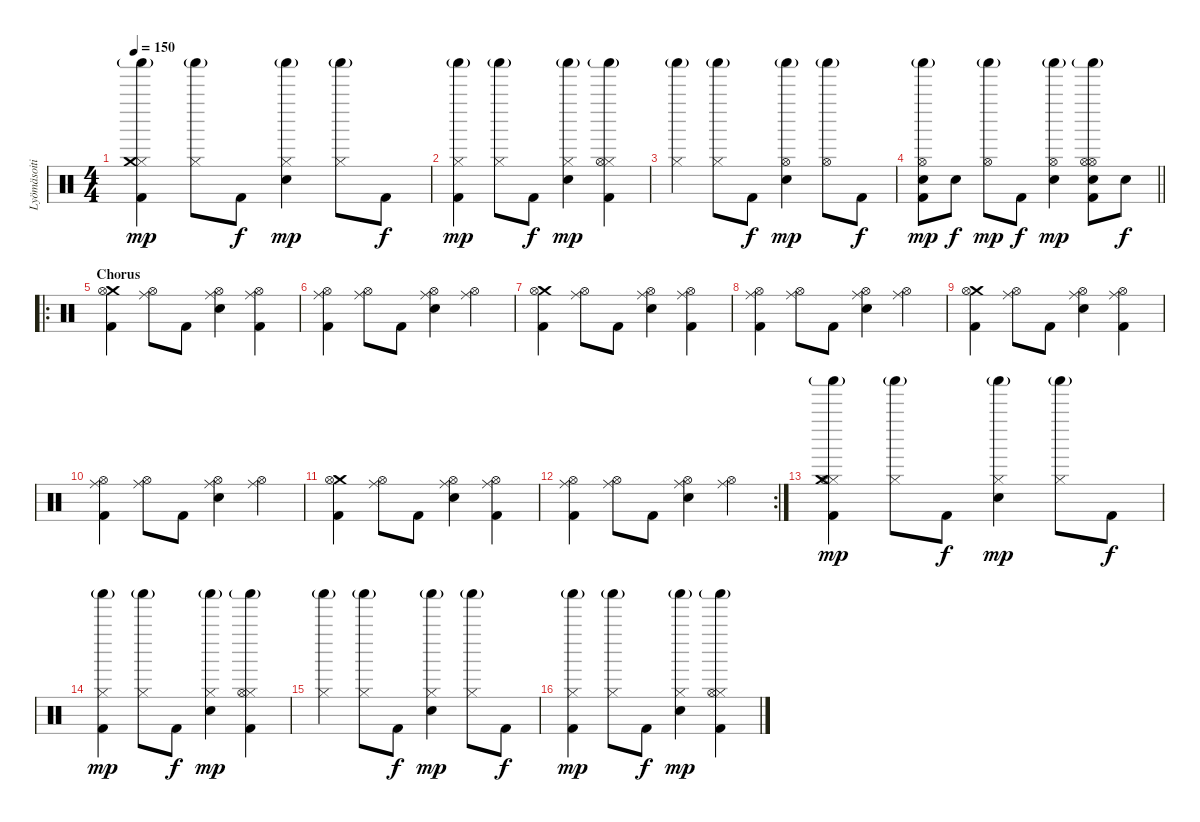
\track ("Lyömäsoitin" "Lyömäsoiti") {instrument percussion}
\staff
\articulation defaults
\ts (4 4)
\tempo 150
\clef neutral
\ks c
("Hi-Hat (closed)" "Crash medium (hit)" "Shaker (hit)"{g} "Kick (hit) 2").4{dy mp} ("Hi-Hat (closed)" "Shaker (hit)"{g}).8 "Kick (hit) 2".8{dy f} ("Hi-Hat (closed)" "Snare (hit) 2" "Shaker (hit)"{g}).4{dy mp} ("Hi-Hat (closed)" "Shaker (hit)"{g}).8 "Kick (hit) 2".8{dy f} |
("Hi-Hat (closed)" "Shaker (hit)"{g} "Kick (hit) 2").4{dy mp} ("Hi-Hat (closed)" "Shaker (hit)"{g}).8 "Kick (hit) 2".8{dy f} ("Hi-Hat (closed)" "Snare (hit) 2" "Shaker (hit)"{g}).4{dy mp} ("Hi-Hat (closed)" "Hi-Hat (open)" "Shaker (hit)"{g} "Kick (hit) 2").4 |
("Hi-Hat (closed)" "Shaker (hit)"{g}).4 ("Hi-Hat (closed)" "Shaker (hit)"{g}).8 "Kick (hit) 2".8{dy f} ("Hi-Hat (open)" "Snare (hit) 2" "Shaker (hit)"{g}).4{dy mp} ("Hi-Hat (open)" "Shaker (hit)"{g}).8 "Kick (hit) 2".8{dy f} |
\barLineRight lightlight
("Hi-Hat (open)" "Snare (hit) 2" "Shaker (hit)"{g} "Kick (hit) 2").8{dy mp} "Snare (hit) 2".8{dy f} ("Hi-Hat (open)" "Shaker (hit)"{g}).8{dy mp} "Kick (hit) 2".8{dy f} ("Hi-Hat (open)" "Snare (hit) 2" "Shaker (hit)"{g}).4{dy mp} ("Hi-Hat (open)" "Hi-Hat (open)" "Snare (hit) 2" "Shaker (hit)"{g} "Kick (hit) 2").8 "Snare (hit) 2".8{dy f} |
\ro
\section ("" "Chorus")
("Crash medium (hit)" "Hi-Hat (open)" "Kick (hit) 2").4 ("Ride (middle)" "Hi-Hat (open)").8 "Kick (hit) 2".8 ("Ride (middle)" "Hi-Hat (open)" "Snare (hit) 2").4 ("Ride (middle)" "Hi-Hat (open)" "Kick (hit) 2").4 |
("Ride (middle)" "Hi-Hat (open)" "Kick (hit) 2").4 ("Ride (middle)" "Hi-Hat (open)").8 "Kick (hit) 2".8 ("Ride (middle)" "Hi-Hat (open)" "Snare (hit) 2").4 ("Ride (middle)" "Hi-Hat (open)").4 |
("Crash medium (hit)" "Hi-Hat (open)" "Kick (hit) 2").4 ("Ride (middle)" "Hi-Hat (open)").8 "Kick (hit) 2".8 ("Ride (middle)" "Hi-Hat (open)" "Snare (hit) 2").4 ("Ride (middle)" "Hi-Hat (open)" "Kick (hit) 2").4 |
("Ride (middle)" "Hi-Hat (open)" "Kick (hit) 2").4 ("Ride (middle)" "Hi-Hat (open)").8 "Kick (hit) 2".8 ("Ride (middle)" "Hi-Hat (open)" "Snare (hit) 2").4 ("Ride (middle)" "Hi-Hat (open)").4 |
("Crash medium (hit)" "Hi-Hat (open)" "Kick (hit) 2").4 ("Ride (middle)" "Hi-Hat (open)").8 "Kick (hit) 2".8 ("Ride (middle)" "Hi-Hat (open)" "Snare (hit) 2").4 ("Ride (middle)" "Hi-Hat (open)" "Kick (hit) 2").4 |
("Ride (middle)" "Hi-Hat (open)" "Kick (hit) 2").4 ("Ride (middle)" "Hi-Hat (open)").8 "Kick (hit) 2".8 ("Ride (middle)" "Hi-Hat (open)" "Snare (hit) 2").4 ("Ride (middle)" "Hi-Hat (open)").4 |
("Crash medium (hit)" "Hi-Hat (open)" "Kick (hit) 2").4 ("Ride (middle)" "Hi-Hat (open)").8 "Kick (hit) 2".8 ("Ride (middle)" "Hi-Hat (open)" "Snare (hit) 2").4 ("Ride (middle)" "Hi-Hat (open)" "Kick (hit) 2").4 |
\rc 2
("Ride (middle)" "Hi-Hat (open)" "Kick (hit) 2").4 ("Ride (middle)" "Hi-Hat (open)").8 "Kick (hit) 2".8 ("Ride (middle)" "Hi-Hat (open)" "Snare (hit) 2").4 ("Ride (middle)" "Hi-Hat (open)").4 |
("Hi-Hat (closed)" "Hi-Hat (open)" "Shaker (hit)"{g} "Crash medium (hit)" "Kick (hit) 2").4{dy mp} ("Hi-Hat (closed)" "Shaker (hit)"{g}).8 "Kick (hit) 2".8{dy f} ("Hi-Hat (closed)" "Snare (hit) 2" "Shaker (hit)"{g}).4{dy mp} ("Hi-Hat (closed)" "Shaker (hit)"{g}).8 "Kick (hit) 2".8{dy f} |
("Hi-Hat (closed)" "Shaker (hit)"{g} "Kick (hit) 2").4{dy mp} ("Hi-Hat (closed)" "Shaker (hit)"{g}).8 "Kick (hit) 2".8{dy f} ("Hi-Hat (closed)" "Snare (hit) 2" "Shaker (hit)"{g}).4{dy mp} ("Hi-Hat (closed)" "Hi-Hat (open)" "Shaker (hit)"{g} "Kick (hit) 2").4 |
("Hi-Hat (closed)" "Shaker (hit)"{g}).4 ("Hi-Hat (closed)" "Shaker (hit)"{g}).8 "Kick (hit) 2".8{dy f} ("Hi-Hat (closed)" "Snare (hit) 2" "Shaker (hit)"{g}).4{dy mp} ("Hi-Hat (closed)" "Shaker (hit)"{g}).8 "Kick (hit) 2".8{dy f} |
("Hi-Hat (closed)" "Shaker (hit)"{g} "Kick (hit) 2").4{dy mp} ("Hi-Hat (closed)" "Shaker (hit)"{g}).8 "Kick (hit) 2".8{dy f} ("Hi-Hat (closed)" "Snare (hit) 2" "Shaker (hit)"{g}).4{dy mp} ("Hi-Hat (closed)" "Hi-Hat (open)" "Shaker (hit)"{g} "Kick (hit) 2").4
